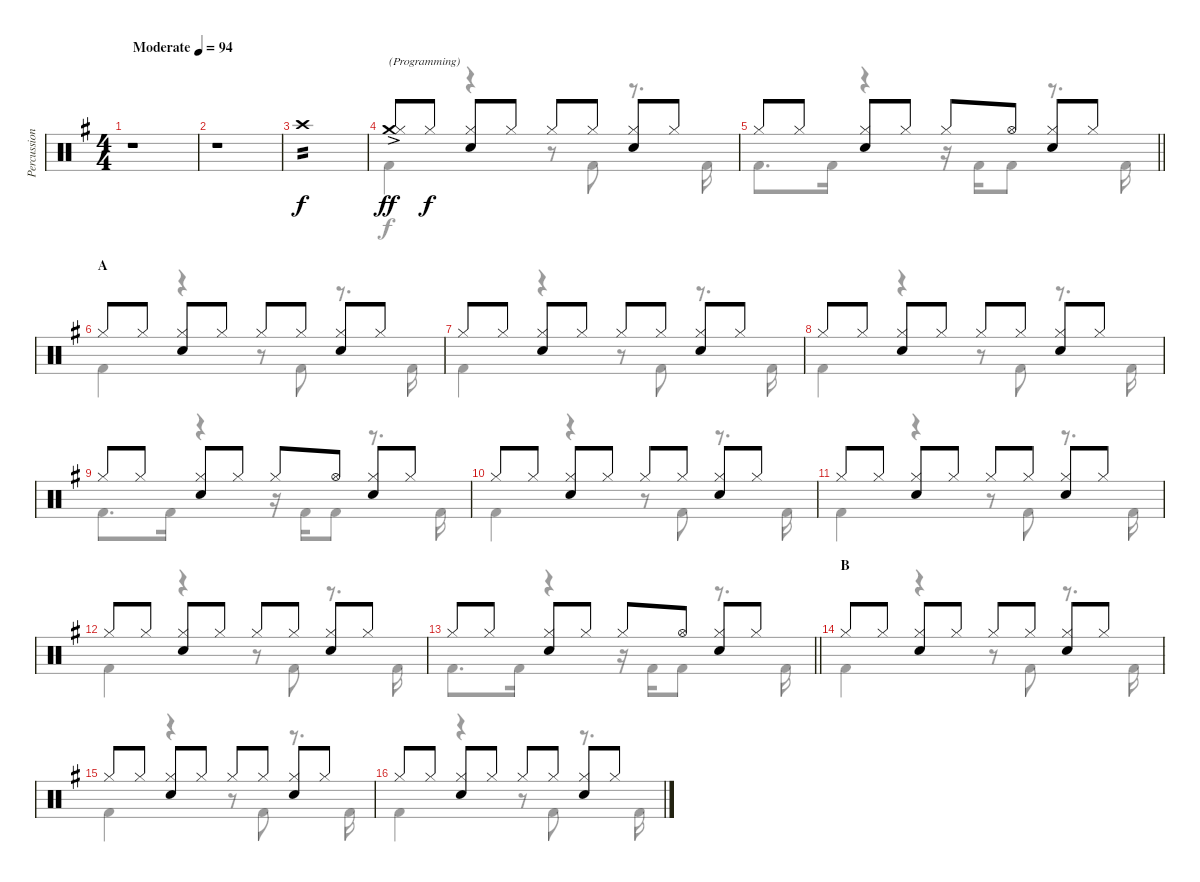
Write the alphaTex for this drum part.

\track ("Percussion" "Percussion") {instrument percussion}
\staff {score}
\articulation defaults
\voice
\ts (4 4)
\tempo (94 "Moderate")
\clef neutral
\ks g
r.1{dy f} |
r.1 |
"Crash high (hit)".1{tp 2} |
("Crash medium (hit)"{ac} "Hi-Hat (closed)").8{txt "(Programming)" dy ff} "Hi-Hat (closed)".8{dy f} ("Hi-Hat (closed)" "Electric Snare (hit)").8 "Hi-Hat (closed)".8 "Hi-Hat (closed)".8 "Hi-Hat (closed)".8 ("Hi-Hat (closed)" "Electric Snare (hit)").8 "Hi-Hat (closed)".8 |
\barLineRight lightlight "Hi-Hat (closed)".8 "Hi-Hat (closed)".8
("Hi-Hat (closed)" "Electric Snare (hit)").8 "Hi-Hat (closed)".8 "Hi-Hat (closed)".8 "Hi-Hat (open)".8 ("Hi-Hat (closed)" "Electric Snare (hit)").8 "Hi-Hat (closed)".8 |
\section ("" "A")
"Hi-Hat (closed)".8 "Hi-Hat (closed)".8 ("Hi-Hat (closed)" "Electric Snare (hit)").8 "Hi-Hat (closed)".8 "Hi-Hat (closed)".8 "Hi-Hat (closed)".8 ("Hi-Hat (closed)" "Electric Snare (hit)").8 "Hi-Hat (closed)".8 |
"Hi-Hat (closed)".8 "Hi-Hat (closed)".8 ("Hi-Hat (closed)" "Electric Snare (hit)").8 "Hi-Hat (closed)".8 "Hi-Hat (closed)".8 "Hi-Hat (closed)".8 ("Hi-Hat (closed)" "Electric Snare (hit)").8 "Hi-Hat (closed)".8 |
"Hi-Hat (closed)".8 "Hi-Hat (closed)".8 ("Hi-Hat (closed)" "Electric Snare (hit)").8 "Hi-Hat (closed)".8 "Hi-Hat (closed)".8 "Hi-Hat (closed)".8 ("Hi-Hat (closed)" "Electric Snare (hit)").8 "Hi-Hat (closed)".8 |
"Hi-Hat (closed)".8 "Hi-Hat (closed)".8 ("Hi-Hat (closed)" "Electric Snare (hit)").8 "Hi-Hat (closed)".8 "Hi-Hat (closed)".8 "Hi-Hat (open)".8 ("Hi-Hat (closed)" "Electric Snare (hit)").8 "Hi-Hat (closed)".8 |
"Hi-Hat (closed)".8 "Hi-Hat (closed)".8 ("Hi-Hat (closed)" "Electric Snare (hit)").8 "Hi-Hat (closed)".8 "Hi-Hat (closed)".8 "Hi-Hat (closed)".8 ("Hi-Hat (closed)" "Electric Snare (hit)").8 "Hi-Hat (closed)".8 |
"Hi-Hat (closed)".8 "Hi-Hat (closed)".8 ("Hi-Hat (closed)" "Electric Snare (hit)").8 "Hi-Hat (closed)".8 "Hi-Hat (closed)".8 "Hi-Hat (closed)".8 ("Hi-Hat (closed)" "Electric Snare (hit)").8 "Hi-Hat (closed)".8 |
"Hi-Hat (closed)".8 "Hi-Hat (closed)".8 ("Hi-Hat (closed)" "Electric Snare (hit)").8 "Hi-Hat (closed)".8 "Hi-Hat (closed)".8 "Hi-Hat (closed)".8 ("Hi-Hat (closed)" "Electric Snare (hit)").8 "Hi-Hat (closed)".8 |
\barLineRight lightlight "Hi-Hat (closed)".8 "Hi-Hat (closed)".8
("Hi-Hat (closed)" "Electric Snare (hit)").8 "Hi-Hat (closed)".8 "Hi-Hat (closed)".8 "Hi-Hat (open)".8 ("Hi-Hat (closed)" "Electric Snare (hit)").8 "Hi-Hat (closed)".8 |
\section ("" "B")
"Hi-Hat (closed)".8 "Hi-Hat (closed)".8 ("Hi-Hat (closed)" "Electric Snare (hit)").8 "Hi-Hat (closed)".8 "Hi-Hat (closed)".8 "Hi-Hat (closed)".8 ("Hi-Hat (closed)" "Electric Snare (hit)").8 "Hi-Hat (closed)".8 |
"Hi-Hat (closed)".8 "Hi-Hat (closed)".8 ("Hi-Hat (closed)" "Electric Snare (hit)").8 "Hi-Hat (closed)".8 "Hi-Hat (closed)".8 "Hi-Hat (closed)".8 ("Hi-Hat (closed)" "Electric Snare (hit)").8 "Hi-Hat (closed)".8 |
"Hi-Hat (closed)".8 "Hi-Hat (closed)".8 ("Hi-Hat (closed)" "Electric Snare (hit)").8 "Hi-Hat (closed)".8 "Hi-Hat (closed)".8 "Hi-Hat (closed)".8 ("Hi-Hat (closed)" "Electric Snare (hit)").8 "Hi-Hat (closed)".8
\voice
\clef neutral
\ottava regular
\simile none
\ks g
|
|
|
"Kick (hit) 2".4 r.4 r.8 "Kick (hit) 2".8 r.8{d} "Kick (hit) 2".16 |
\barLineRight lightlight "Kick (hit) 2".8{d} "Kick (hit) 2".16
r.4 r.16 "Kick (hit) 2".16 "Kick (hit) 2".8 r.8{d} "Kick (hit) 2".16 |
"Kick (hit) 2".4 r.4 r.8 "Kick (hit) 2".8 r.8{d} "Kick (hit) 2".16 |
"Kick (hit) 2".4 r.4 r.8 "Kick (hit) 2".8 r.8{d} "Kick (hit) 2".16 |
"Kick (hit) 2".4 r.4 r.8 "Kick (hit) 2".8 r.8{d} "Kick (hit) 2".16 |
"Kick (hit) 2".8{d} "Kick (hit) 2".16 r.4 r.16 "Kick (hit) 2".16 "Kick (hit) 2".8 r.8{d} "Kick (hit) 2".16 |
"Kick (hit) 2".4 r.4 r.8 "Kick (hit) 2".8 r.8{d} "Kick (hit) 2".16 |
"Kick (hit) 2".4 r.4 r.8 "Kick (hit) 2".8 r.8{d} "Kick (hit) 2".16 |
"Kick (hit) 2".4 r.4 r.8 "Kick (hit) 2".8 r.8{d} "Kick (hit) 2".16 |
\barLineRight lightlight "Kick (hit) 2".8{d} "Kick (hit) 2".16
r.4 r.16 "Kick (hit) 2".16 "Kick (hit) 2".8 r.8{d} "Kick (hit) 2".16 |
"Kick (hit) 2".4 r.4 r.8 "Kick (hit) 2".8 r.8{d} "Kick (hit) 2".16 |
"Kick (hit) 2".4 r.4 r.8 "Kick (hit) 2".8 r.8{d} "Kick (hit) 2".16 |
"Kick (hit) 2".4 r.4 r.8 "Kick (hit) 2".8 r.8{d} "Kick (hit) 2".16
